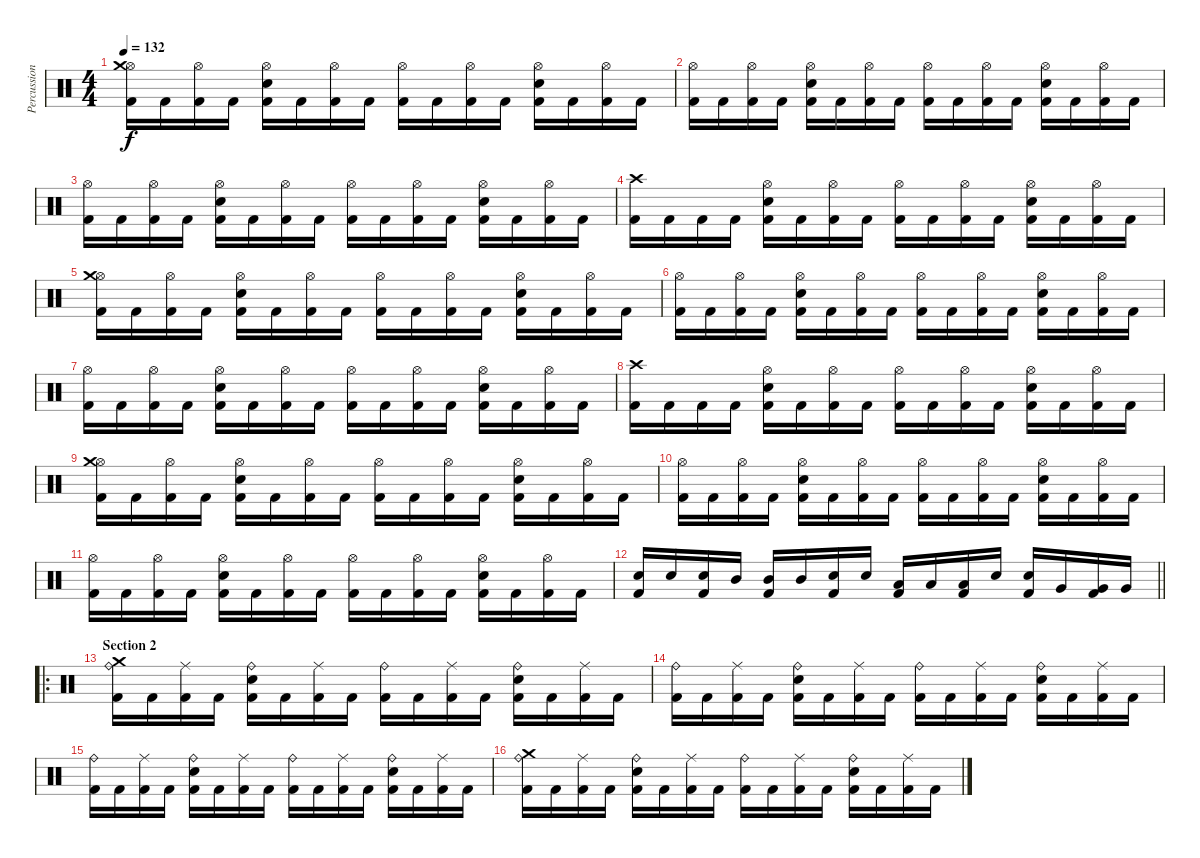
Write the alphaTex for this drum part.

\track ("Percussion" "Percussion") {instrument percussion}
\staff {score}
\articulation defaults
\ts (4 4)
\tempo 132
\clef neutral
\ks c
("Kick (hit) 2" "Hi-Hat (open)" "Crash medium (hit)").16{dy f} "Kick (hit) 2".16 ("Kick (hit) 2" "Hi-Hat (open)").16 "Kick (hit) 2".16 ("Kick (hit) 2" "Electric Snare (hit)" "Hi-Hat (open)").16 "Kick (hit) 2".16 ("Kick (hit) 2" "Hi-Hat (open)").16 "Kick (hit) 2".16 ("Kick (hit) 2" "Hi-Hat (open)").16 "Kick (hit) 2".16 ("Kick (hit) 2" "Hi-Hat (open)").16 "Kick (hit) 2".16 ("Kick (hit) 2" "Electric Snare (hit)" "Hi-Hat (open)").16 "Kick (hit) 2".16 ("Kick (hit) 2" "Hi-Hat (open)").16 "Kick (hit) 2".16 |
("Kick (hit) 2" "Hi-Hat (open)").16 "Kick (hit) 2".16 ("Kick (hit) 2" "Hi-Hat (open)").16 "Kick (hit) 2".16 ("Kick (hit) 2" "Electric Snare (hit)" "Hi-Hat (open)").16 "Kick (hit) 2".16 ("Kick (hit) 2" "Hi-Hat (open)").16 "Kick (hit) 2".16 ("Kick (hit) 2" "Hi-Hat (open)").16 "Kick (hit) 2".16 ("Kick (hit) 2" "Hi-Hat (open)").16 "Kick (hit) 2".16 ("Kick (hit) 2" "Electric Snare (hit)" "Hi-Hat (open)").16 "Kick (hit) 2".16 ("Kick (hit) 2" "Hi-Hat (open)").16 "Kick (hit) 2".16 |
("Kick (hit) 2" "Hi-Hat (open)").16 "Kick (hit) 2".16 ("Kick (hit) 2" "Hi-Hat (open)").16 "Kick (hit) 2".16 ("Kick (hit) 2" "Electric Snare (hit)" "Hi-Hat (open)").16 "Kick (hit) 2".16 ("Kick (hit) 2" "Hi-Hat (open)").16 "Kick (hit) 2".16 ("Kick (hit) 2" "Hi-Hat (open)").16 "Kick (hit) 2".16 ("Kick (hit) 2" "Hi-Hat (open)").16 "Kick (hit) 2".16 ("Kick (hit) 2" "Electric Snare (hit)" "Hi-Hat (open)").16 "Kick (hit) 2".16 ("Kick (hit) 2" "Hi-Hat (open)").16 "Kick (hit) 2".16 |
("Kick (hit) 2" "Crash high (hit)").16 "Kick (hit) 2".16 "Kick (hit) 2".16 "Kick (hit) 2".16 ("Kick (hit) 2" "Electric Snare (hit)" "Hi-Hat (open)").16 "Kick (hit) 2".16 ("Kick (hit) 2" "Hi-Hat (open)").16 "Kick (hit) 2".16 ("Kick (hit) 2" "Hi-Hat (open)").16 "Kick (hit) 2".16 ("Kick (hit) 2" "Hi-Hat (open)").16 "Kick (hit) 2".16 ("Kick (hit) 2" "Electric Snare (hit)" "Hi-Hat (open)").16 "Kick (hit) 2".16 ("Kick (hit) 2" "Hi-Hat (open)").16 "Kick (hit) 2".16 |
("Kick (hit) 2" "Hi-Hat (open)" "Crash medium (hit)").16 "Kick (hit) 2".16 ("Kick (hit) 2" "Hi-Hat (open)").16 "Kick (hit) 2".16 ("Kick (hit) 2" "Electric Snare (hit)" "Hi-Hat (open)").16 "Kick (hit) 2".16 ("Kick (hit) 2" "Hi-Hat (open)").16 "Kick (hit) 2".16 ("Kick (hit) 2" "Hi-Hat (open)").16 "Kick (hit) 2".16 ("Kick (hit) 2" "Hi-Hat (open)").16 "Kick (hit) 2".16 ("Kick (hit) 2" "Electric Snare (hit)" "Hi-Hat (open)").16 "Kick (hit) 2".16 ("Kick (hit) 2" "Hi-Hat (open)").16 "Kick (hit) 2".16 |
("Kick (hit) 2" "Hi-Hat (open)").16 "Kick (hit) 2".16 ("Kick (hit) 2" "Hi-Hat (open)").16 "Kick (hit) 2".16 ("Kick (hit) 2" "Electric Snare (hit)" "Hi-Hat (open)").16 "Kick (hit) 2".16 ("Kick (hit) 2" "Hi-Hat (open)").16 "Kick (hit) 2".16 ("Kick (hit) 2" "Hi-Hat (open)").16 "Kick (hit) 2".16 ("Kick (hit) 2" "Hi-Hat (open)").16 "Kick (hit) 2".16 ("Kick (hit) 2" "Electric Snare (hit)" "Hi-Hat (open)").16 "Kick (hit) 2".16 ("Kick (hit) 2" "Hi-Hat (open)").16 "Kick (hit) 2".16 |
("Kick (hit) 2" "Hi-Hat (open)").16 "Kick (hit) 2".16 ("Kick (hit) 2" "Hi-Hat (open)").16 "Kick (hit) 2".16 ("Kick (hit) 2" "Electric Snare (hit)" "Hi-Hat (open)").16 "Kick (hit) 2".16 ("Kick (hit) 2" "Hi-Hat (open)").16 "Kick (hit) 2".16 ("Kick (hit) 2" "Hi-Hat (open)").16 "Kick (hit) 2".16 ("Kick (hit) 2" "Hi-Hat (open)").16 "Kick (hit) 2".16 ("Kick (hit) 2" "Electric Snare (hit)" "Hi-Hat (open)").16 "Kick (hit) 2".16 ("Kick (hit) 2" "Hi-Hat (open)").16 "Kick (hit) 2".16 |
("Kick (hit) 2" "Crash high (hit)").16 "Kick (hit) 2".16 "Kick (hit) 2".16 "Kick (hit) 2".16 ("Kick (hit) 2" "Electric Snare (hit)" "Hi-Hat (open)").16 "Kick (hit) 2".16 ("Kick (hit) 2" "Hi-Hat (open)").16 "Kick (hit) 2".16 ("Kick (hit) 2" "Hi-Hat (open)").16 "Kick (hit) 2".16 ("Kick (hit) 2" "Hi-Hat (open)").16 "Kick (hit) 2".16 ("Kick (hit) 2" "Electric Snare (hit)" "Hi-Hat (open)").16 "Kick (hit) 2".16 ("Kick (hit) 2" "Hi-Hat (open)").16 "Kick (hit) 2".16 |
("Kick (hit) 2" "Hi-Hat (open)" "Crash medium (hit)").16 "Kick (hit) 2".16 ("Kick (hit) 2" "Hi-Hat (open)").16 "Kick (hit) 2".16 ("Kick (hit) 2" "Electric Snare (hit)" "Hi-Hat (open)").16 "Kick (hit) 2".16 ("Kick (hit) 2" "Hi-Hat (open)").16 "Kick (hit) 2".16 ("Kick (hit) 2" "Hi-Hat (open)").16 "Kick (hit) 2".16 ("Kick (hit) 2" "Hi-Hat (open)").16 "Kick (hit) 2".16 ("Kick (hit) 2" "Electric Snare (hit)" "Hi-Hat (open)").16 "Kick (hit) 2".16 ("Kick (hit) 2" "Hi-Hat (open)").16 "Kick (hit) 2".16 |
("Kick (hit) 2" "Hi-Hat (open)").16 "Kick (hit) 2".16 ("Kick (hit) 2" "Hi-Hat (open)").16 "Kick (hit) 2".16 ("Kick (hit) 2" "Electric Snare (hit)" "Hi-Hat (open)").16 "Kick (hit) 2".16 ("Kick (hit) 2" "Hi-Hat (open)").16 "Kick (hit) 2".16 ("Kick (hit) 2" "Hi-Hat (open)").16 "Kick (hit) 2".16 ("Kick (hit) 2" "Hi-Hat (open)").16 "Kick (hit) 2".16 ("Kick (hit) 2" "Electric Snare (hit)" "Hi-Hat (open)").16 "Kick (hit) 2".16 ("Kick (hit) 2" "Hi-Hat (open)").16 "Kick (hit) 2".16 |
("Kick (hit) 2" "Hi-Hat (open)").16 "Kick (hit) 2".16 ("Kick (hit) 2" "Hi-Hat (open)").16 "Kick (hit) 2".16 ("Kick (hit) 2" "Electric Snare (hit)" "Hi-Hat (open)").16 "Kick (hit) 2".16 ("Kick (hit) 2" "Hi-Hat (open)").16 "Kick (hit) 2".16 ("Kick (hit) 2" "Hi-Hat (open)").16 "Kick (hit) 2".16 ("Kick (hit) 2" "Hi-Hat (open)").16 "Kick (hit) 2".16 ("Kick (hit) 2" "Electric Snare (hit)" "Hi-Hat (open)").16 "Kick (hit) 2".16 ("Kick (hit) 2" "Hi-Hat (open)").16 "Kick (hit) 2".16 |
\barLineRight lightlight
("Electric Snare (hit)" "Kick (hit) 2").16 "Electric Snare (hit)".16 ("Electric Snare (hit)" "Kick (hit) 2").16 "Mid Tom (hit)".16 ("Mid Tom (hit)" "Kick (hit) 2").16 "Mid Tom (hit)".16 ("Electric Snare (hit)" "Kick (hit) 2").16 "Electric Snare (hit)".16 ("Low Tom (hit)" "Kick (hit) 2").16 "Low Tom (hit)".16 ("Low Tom (hit)" "Kick (hit) 2").16 "Electric Snare (hit)".16 ("Electric Snare (hit)" "Kick (hit) 2").16 "Very Low Tom (hit)".16 ("Very Low Tom (hit)" "Kick (hit) 2").16 "Very Low Tom (hit)".16 |
\ro
\section ("" "Section 2")
("Kick (hit) 2" "Ride (bell)" "Crash medium (hit)").16 "Kick (hit) 2".16 ("Kick (hit) 2" "Ride (middle)").16 "Kick (hit) 2".16 ("Kick (hit) 2" "Electric Snare (hit)" "Ride (bell)").16 "Kick (hit) 2".16 ("Kick (hit) 2" "Ride (middle)").16 "Kick (hit) 2".16 ("Kick (hit) 2" "Ride (bell)").16 "Kick (hit) 2".16 ("Kick (hit) 2" "Ride (middle)").16 "Kick (hit) 2".16 ("Kick (hit) 2" "Electric Snare (hit)" "Ride (bell)").16 "Kick (hit) 2".16 ("Kick (hit) 2" "Ride (middle)").16 "Kick (hit) 2".16 |
("Kick (hit) 2" "Ride (bell)").16 "Kick (hit) 2".16 ("Kick (hit) 2" "Ride (middle)").16 "Kick (hit) 2".16 ("Kick (hit) 2" "Electric Snare (hit)" "Ride (bell)").16 "Kick (hit) 2".16 ("Kick (hit) 2" "Ride (middle)").16 "Kick (hit) 2".16 ("Kick (hit) 2" "Ride (bell)").16 "Kick (hit) 2".16 ("Kick (hit) 2" "Ride (middle)").16 "Kick (hit) 2".16 ("Kick (hit) 2" "Electric Snare (hit)" "Ride (bell)").16 "Kick (hit) 2".16 ("Kick (hit) 2" "Ride (middle)").16 "Kick (hit) 2".16 |
("Kick (hit) 2" "Ride (bell)").16 "Kick (hit) 2".16 ("Kick (hit) 2" "Ride (middle)").16 "Kick (hit) 2".16 ("Kick (hit) 2" "Electric Snare (hit)" "Ride (bell)").16 "Kick (hit) 2".16 ("Kick (hit) 2" "Ride (middle)").16 "Kick (hit) 2".16 ("Kick (hit) 2" "Ride (bell)").16 "Kick (hit) 2".16 ("Kick (hit) 2" "Ride (middle)").16 "Kick (hit) 2".16 ("Kick (hit) 2" "Electric Snare (hit)" "Ride (bell)").16 "Kick (hit) 2".16 ("Kick (hit) 2" "Ride (middle)").16 "Kick (hit) 2".16 |
("Kick (hit) 2" "Ride (bell)" "Crash medium (hit)").16 "Kick (hit) 2".16 ("Kick (hit) 2" "Ride (middle)").16 "Kick (hit) 2".16 ("Kick (hit) 2" "Electric Snare (hit)" "Ride (bell)").16 "Kick (hit) 2".16 ("Kick (hit) 2" "Ride (middle)").16 "Kick (hit) 2".16 ("Kick (hit) 2" "Ride (bell)").16 "Kick (hit) 2".16 ("Kick (hit) 2" "Ride (middle)").16 "Kick (hit) 2".16 ("Kick (hit) 2" "Electric Snare (hit)" "Ride (bell)").16 "Kick (hit) 2".16 ("Kick (hit) 2" "Ride (middle)").16 "Kick (hit) 2".16
